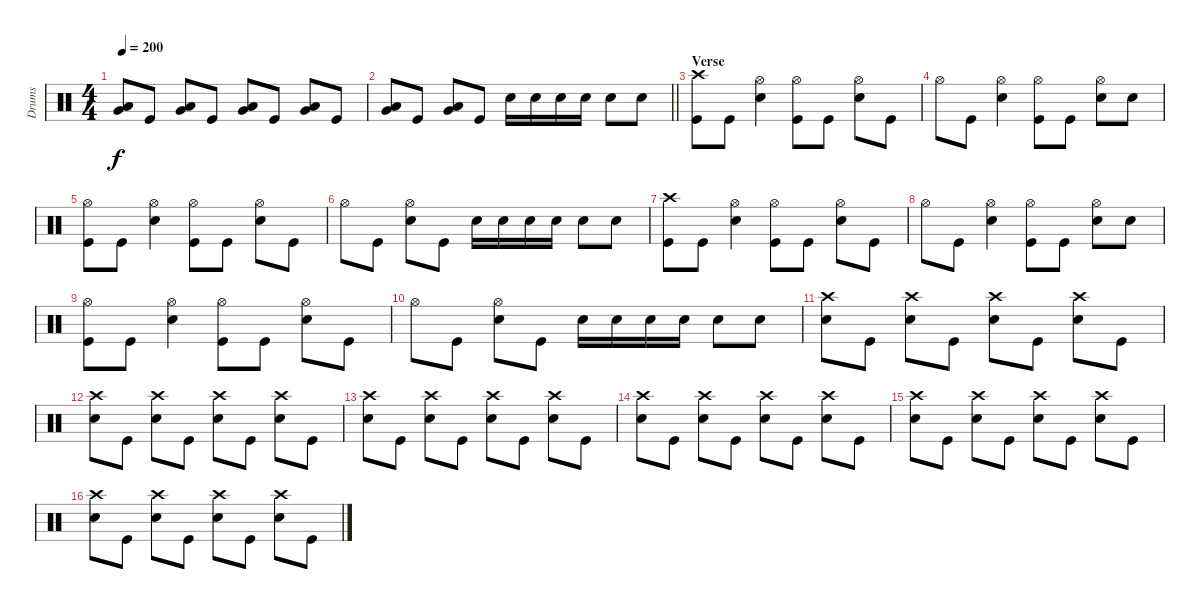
\track ("Drums" "Drums") {instrument percussion}
\staff {score}
\articulation defaults
\ts (4 4)
\tempo 200
\clef neutral
\ks c
("Very Low Tom (hit)" "Low Tom (hit)").8{dy f} "Kick (hit)".8 ("Very Low Tom (hit)" "Low Tom (hit)").8 "Kick (hit)".8 ("Very Low Tom (hit)" "Low Tom (hit)").8 "Kick (hit)".8 ("Very Low Tom (hit)" "Low Tom (hit)").8 "Kick (hit)".8 |
\barLineRight lightlight
("Very Low Tom (hit)" "Low Tom (hit)").8 "Kick (hit)".8 ("Very Low Tom (hit)" "Low Tom (hit)").8 "Kick (hit)".8 "Snare (hit) 2".16 "Snare (hit) 2".16 "Snare (hit) 2".16 "Snare (hit) 2".16 "Snare (hit) 2".8 "Snare (hit) 2".8 |
\section ("" "Verse")
("Crash high (hit)" "Kick (hit)").8 "Kick (hit)".8 ("Hi-Hat (open)" "Snare (hit) 2").4 ("Kick (hit)" "Hi-Hat (open)").8 "Kick (hit)".8 ("Hi-Hat (open)" "Snare (hit) 2").8 "Kick (hit)".8 |
"Hi-Hat (open)".8 "Kick (hit)".8 ("Hi-Hat (open)" "Snare (hit) 2").4 ("Hi-Hat (open)" "Kick (hit)").8 "Kick (hit)".8 ("Snare (hit) 2" "Hi-Hat (open)").8 "Snare (hit) 2".8 |
("Hi-Hat (open)" "Kick (hit)").8 "Kick (hit)".8 ("Hi-Hat (open)" "Snare (hit) 2").4 ("Kick (hit)" "Hi-Hat (open)").8 "Kick (hit)".8 ("Hi-Hat (open)" "Snare (hit) 2").8 "Kick (hit)".8 |
"Hi-Hat (open)".8 "Kick (hit)".8 ("Hi-Hat (open)" "Snare (hit) 2").8 "Kick (hit)".8 "Snare (hit) 2".16 "Snare (hit) 2".16 "Snare (hit) 2".16 "Snare (hit) 2".16 "Snare (hit) 2".8 "Snare (hit) 2".8 |
("Crash high (hit)" "Kick (hit)").8 "Kick (hit)".8 ("Hi-Hat (open)" "Snare (hit) 2").4 ("Kick (hit)" "Hi-Hat (open)").8 "Kick (hit)".8 ("Hi-Hat (open)" "Snare (hit) 2").8 "Kick (hit)".8 |
"Hi-Hat (open)".8 "Kick (hit)".8 ("Hi-Hat (open)" "Snare (hit) 2").4 ("Hi-Hat (open)" "Kick (hit)").8 "Kick (hit)".8 ("Snare (hit) 2" "Hi-Hat (open)").8 "Snare (hit) 2".8 |
("Hi-Hat (open)" "Kick (hit)").8 "Kick (hit)".8 ("Hi-Hat (open)" "Snare (hit) 2").4 ("Kick (hit)" "Hi-Hat (open)").8 "Kick (hit)".8 ("Hi-Hat (open)" "Snare (hit) 2").8 "Kick (hit)".8 |
"Hi-Hat (open)".8 "Kick (hit)".8 ("Hi-Hat (open)" "Snare (hit) 2").8 "Kick (hit)".8 "Snare (hit) 2".16 "Snare (hit) 2".16 "Snare (hit) 2".16 "Snare (hit) 2".16 "Snare (hit) 2".8 "Snare (hit) 2".8 |
("Crash high (hit)" "Snare (hit) 2").8 "Kick (hit)".8 ("Crash high (hit)" "Snare (hit) 2").8 "Kick (hit)".8 ("Crash high (hit)" "Snare (hit) 2").8 "Kick (hit)".8 ("Crash high (hit)" "Snare (hit) 2").8 "Kick (hit)".8 |
("Crash high (hit)" "Snare (hit) 2").8 "Kick (hit)".8 ("Crash high (hit)" "Snare (hit) 2").8 "Kick (hit)".8 ("Crash high (hit)" "Snare (hit) 2").8 "Kick (hit)".8 ("Crash high (hit)" "Snare (hit) 2").8 "Kick (hit)".8 |
("Crash high (hit)" "Snare (hit) 2").8 "Kick (hit)".8 ("Crash high (hit)" "Snare (hit) 2").8 "Kick (hit)".8 ("Crash high (hit)" "Snare (hit) 2").8 "Kick (hit)".8 ("Crash high (hit)" "Snare (hit) 2").8 "Kick (hit)".8 |
("Crash high (hit)" "Snare (hit) 2").8 "Kick (hit)".8 ("Crash high (hit)" "Snare (hit) 2").8 "Kick (hit)".8 ("Crash high (hit)" "Snare (hit) 2").8 "Kick (hit)".8 ("Crash high (hit)" "Snare (hit) 2").8 "Kick (hit)".8 |
("Crash high (hit)" "Snare (hit) 2").8 "Kick (hit)".8 ("Crash high (hit)" "Snare (hit) 2").8 "Kick (hit)".8 ("Crash high (hit)" "Snare (hit) 2").8 "Kick (hit)".8 ("Crash high (hit)" "Snare (hit) 2").8 "Kick (hit)".8 |
("Crash high (hit)" "Snare (hit) 2").8 "Kick (hit)".8 ("Crash high (hit)" "Snare (hit) 2").8 "Kick (hit)".8 ("Crash high (hit)" "Snare (hit) 2").8 "Kick (hit)".8 ("Crash high (hit)" "Snare (hit) 2").8 "Kick (hit)".8
